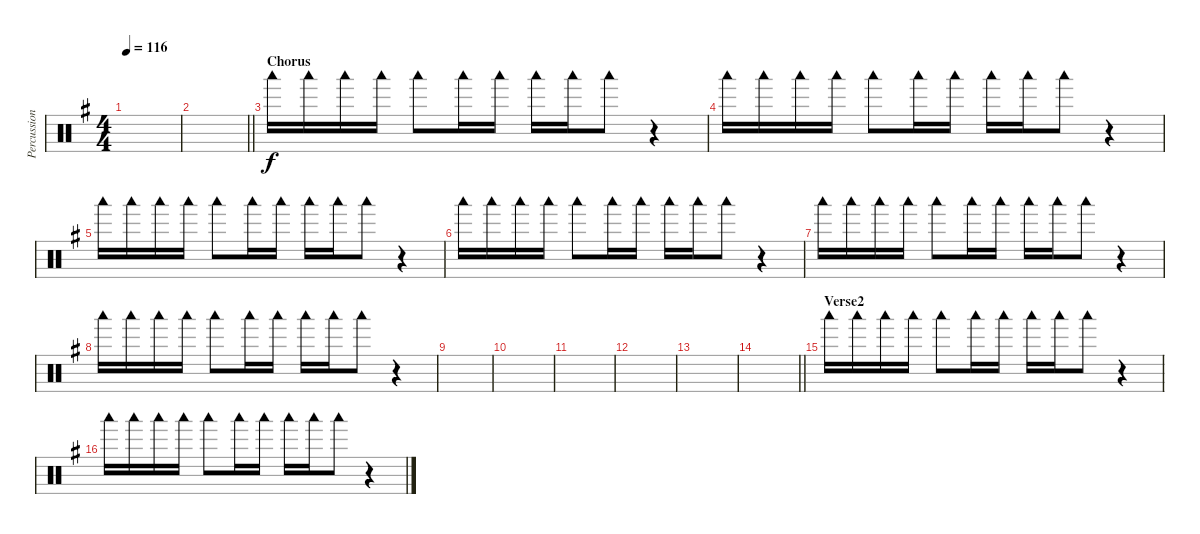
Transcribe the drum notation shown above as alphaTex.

\track ("Percussion" "Percussion") {instrument percussion}
\staff {score}
\articulation defaults
\ts (4 4)
\tempo 116
\clef neutral
\ks g
|
\barLineRight lightlight
|
\section ("" "Chorus")
"Woodblock low (hit)".16 "Woodblock low (hit)".16 "Woodblock low (hit)".16 "Woodblock low (hit)".16 "Woodblock low (hit)".8 "Woodblock low (hit)".16 "Woodblock low (hit)".16 "Woodblock low (hit)".16 "Woodblock low (hit)".16 "Woodblock low (hit)".8 r.4 |
"Woodblock low (hit)".16 "Woodblock low (hit)".16 "Woodblock low (hit)".16 "Woodblock low (hit)".16 "Woodblock low (hit)".8 "Woodblock low (hit)".16 "Woodblock low (hit)".16 "Woodblock low (hit)".16 "Woodblock low (hit)".16 "Woodblock low (hit)".8 r.4 |
"Woodblock low (hit)".16 "Woodblock low (hit)".16 "Woodblock low (hit)".16 "Woodblock low (hit)".16 "Woodblock low (hit)".8 "Woodblock low (hit)".16 "Woodblock low (hit)".16 "Woodblock low (hit)".16 "Woodblock low (hit)".16 "Woodblock low (hit)".8 r.4 |
"Woodblock low (hit)".16 "Woodblock low (hit)".16 "Woodblock low (hit)".16 "Woodblock low (hit)".16 "Woodblock low (hit)".8 "Woodblock low (hit)".16 "Woodblock low (hit)".16 "Woodblock low (hit)".16 "Woodblock low (hit)".16 "Woodblock low (hit)".8 r.4 |
"Woodblock low (hit)".16 "Woodblock low (hit)".16 "Woodblock low (hit)".16 "Woodblock low (hit)".16 "Woodblock low (hit)".8 "Woodblock low (hit)".16 "Woodblock low (hit)".16 "Woodblock low (hit)".16 "Woodblock low (hit)".16 "Woodblock low (hit)".8 r.4 |
"Woodblock low (hit)".16 "Woodblock low (hit)".16 "Woodblock low (hit)".16 "Woodblock low (hit)".16 "Woodblock low (hit)".8 "Woodblock low (hit)".16 "Woodblock low (hit)".16 "Woodblock low (hit)".16 "Woodblock low (hit)".16 "Woodblock low (hit)".8 r.4 |
|
|
|
|
|
\barLineRight lightlight
|
\section ("" "Verse2")
"Woodblock low (hit)".16 "Woodblock low (hit)".16 "Woodblock low (hit)".16 "Woodblock low (hit)".16 "Woodblock low (hit)".8 "Woodblock low (hit)".16 "Woodblock low (hit)".16 "Woodblock low (hit)".16 "Woodblock low (hit)".16 "Woodblock low (hit)".8 r.4 |
"Woodblock low (hit)".16 "Woodblock low (hit)".16 "Woodblock low (hit)".16 "Woodblock low (hit)".16 "Woodblock low (hit)".8 "Woodblock low (hit)".16 "Woodblock low (hit)".16 "Woodblock low (hit)".16 "Woodblock low (hit)".16 "Woodblock low (hit)".8 r.4
